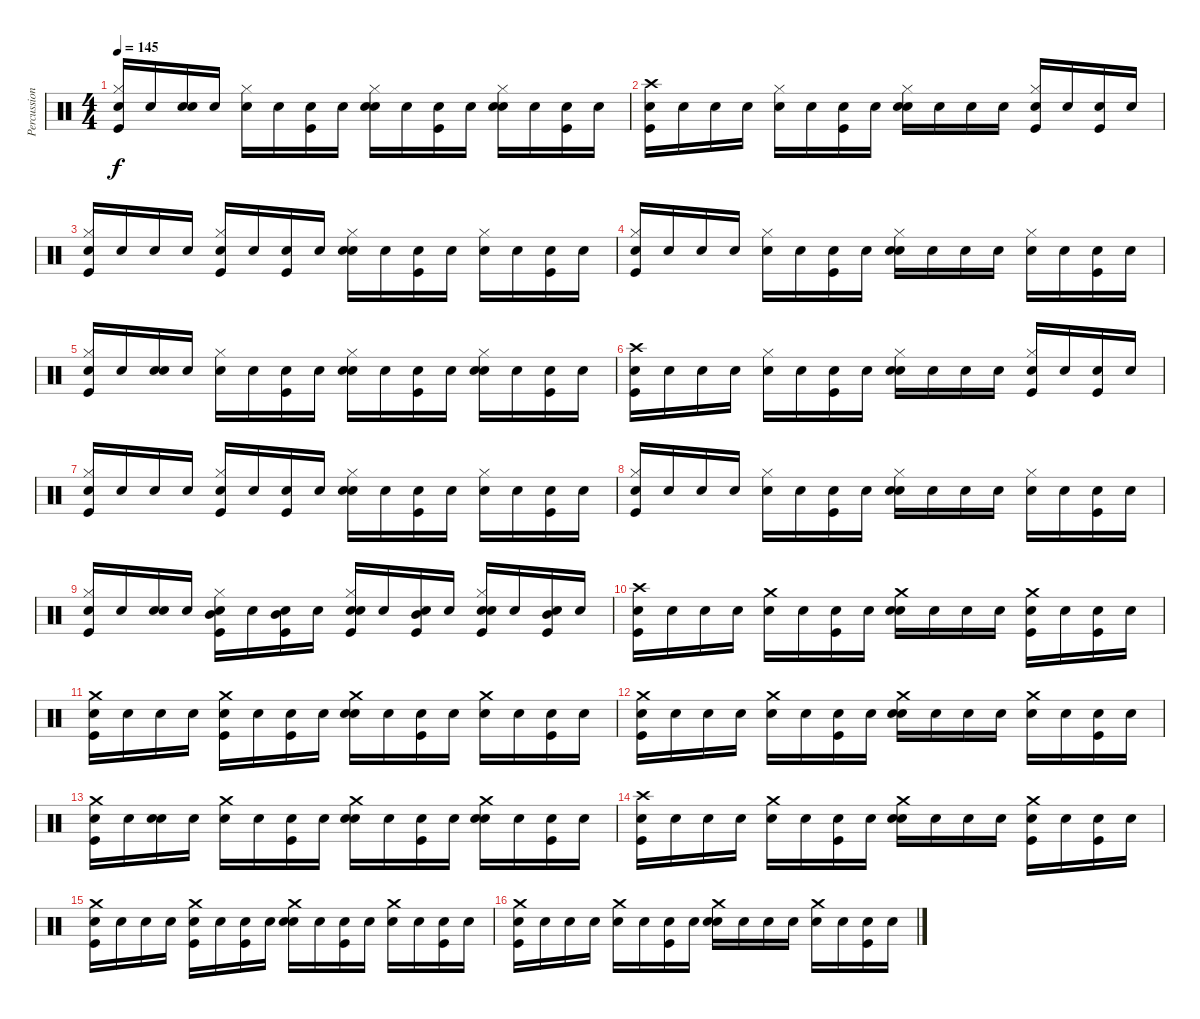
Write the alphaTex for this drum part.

\track ("Percussion" "Percussion") {instrument percussion}
\staff {score}
\articulation defaults
\ts (4 4)
\tempo 145
\clef neutral
\ks c
("Snare (hit)" "Hi-Hat (closed)" "Kick (hit)").16{dy f} "Snare (hit)".16 ("Snare (hit)" "Snare (hit) 2").16 "Snare (hit)".16 ("Snare (hit)" "Hi-Hat (closed)").16 "Snare (hit)".16 ("Snare (hit)" "Kick (hit)").16 "Snare (hit)".16 ("Snare (hit)" "Snare (hit) 2" "Hi-Hat (closed)").16 "Snare (hit)".16 ("Snare (hit)" "Kick (hit)").16 "Snare (hit)".16 ("Snare (hit)" "Snare (hit) 2" "Hi-Hat (closed)").16 "Snare (hit)".16 ("Snare (hit)" "Kick (hit)").16 "Snare (hit)".16 |
("Snare (hit)" "Crash high (hit)" "Kick (hit)").16 "Snare (hit)".16 "Snare (hit)".16 "Snare (hit)".16 ("Snare (hit)" "Hi-Hat (closed)").16 "Snare (hit)".16 ("Snare (hit)" "Kick (hit)").16 "Snare (hit)".16 ("Snare (hit)" "Hi-Hat (closed)" "Snare (hit) 2").16 "Snare (hit)".16 "Snare (hit)".16 "Snare (hit)".16 ("Snare (hit)" "Hi-Hat (closed)" "Kick (hit)").16 "Snare (hit)".16 ("Snare (hit)" "Kick (hit)").16 "Snare (hit)".16 |
("Snare (hit)" "Hi-Hat (closed)" "Kick (hit)").16 "Snare (hit)".16 "Snare (hit)".16 "Snare (hit)".16 ("Snare (hit)" "Hi-Hat (closed)" "Kick (hit)").16 "Snare (hit)".16 ("Snare (hit)" "Kick (hit)").16 "Snare (hit)".16 ("Snare (hit)" "Hi-Hat (closed)" "Snare (hit) 2").16 "Snare (hit)".16 ("Snare (hit)" "Kick (hit)").16 "Snare (hit)".16 ("Snare (hit)" "Hi-Hat (closed)").16 "Snare (hit)".16 ("Snare (hit)" "Kick (hit)").16 "Snare (hit)".16 |
("Snare (hit)" "Hi-Hat (closed)" "Kick (hit)").16 "Snare (hit)".16 "Snare (hit)".16 "Snare (hit)".16 ("Snare (hit)" "Hi-Hat (closed)").16 "Snare (hit)".16 ("Snare (hit)" "Kick (hit)").16 "Snare (hit)".16 ("Snare (hit)" "Hi-Hat (closed)" "Snare (hit) 2").16 "Snare (hit)".16 "Snare (hit)".16 "Snare (hit)".16 ("Snare (hit)" "Hi-Hat (closed)").16 "Snare (hit)".16 ("Snare (hit)" "Kick (hit)").16 "Snare (hit)".16 |
("Snare (hit)" "Hi-Hat (closed)" "Kick (hit)").16 "Snare (hit)".16 ("Snare (hit)" "Snare (hit) 2").16 "Snare (hit)".16 ("Snare (hit)" "Hi-Hat (closed)").16 "Snare (hit)".16 ("Snare (hit)" "Kick (hit)").16 "Snare (hit)".16 ("Snare (hit)" "Snare (hit) 2" "Hi-Hat (closed)").16 "Snare (hit)".16 ("Snare (hit)" "Kick (hit)").16 "Snare (hit)".16 ("Snare (hit)" "Snare (hit) 2" "Hi-Hat (closed)").16 "Snare (hit)".16 ("Snare (hit)" "Kick (hit)").16 "Snare (hit)".16 |
("Snare (hit)" "Crash high (hit)" "Kick (hit)").16 "Snare (hit)".16 "Snare (hit)".16 "Snare (hit)".16 ("Snare (hit)" "Hi-Hat (closed)").16 "Snare (hit)".16 ("Snare (hit)" "Kick (hit)").16 "Snare (hit)".16 ("Snare (hit)" "Hi-Hat (closed)" "Snare (hit) 2").16 "Snare (hit)".16 "Snare (hit)".16 "Snare (hit)".16 ("Snare (hit)" "Hi-Hat (closed)" "Kick (hit)").16 "Snare (hit)".16 ("Snare (hit)" "Kick (hit)").16 "Snare (hit)".16 |
("Snare (hit)" "Hi-Hat (closed)" "Kick (hit)").16 "Snare (hit)".16 "Snare (hit)".16 "Snare (hit)".16 ("Snare (hit)" "Hi-Hat (closed)" "Kick (hit)").16 "Snare (hit)".16 ("Snare (hit)" "Kick (hit)").16 "Snare (hit)".16 ("Snare (hit)" "Hi-Hat (closed)" "Snare (hit) 2").16 "Snare (hit)".16 ("Snare (hit)" "Kick (hit)").16 "Snare (hit)".16 ("Snare (hit)" "Hi-Hat (closed)").16 "Snare (hit)".16 ("Snare (hit)" "Kick (hit)").16 "Snare (hit)".16 |
("Snare (hit)" "Hi-Hat (closed)" "Kick (hit)").16 "Snare (hit)".16 "Snare (hit)".16 "Snare (hit)".16 ("Snare (hit)" "Hi-Hat (closed)").16 "Snare (hit)".16 ("Snare (hit)" "Kick (hit)").16 "Snare (hit)".16 ("Snare (hit)" "Hi-Hat (closed)" "Snare (hit) 2").16 "Snare (hit)".16 "Snare (hit)".16 "Snare (hit)".16 ("Snare (hit)" "Hi-Hat (closed)").16 "Snare (hit)".16 ("Snare (hit)" "Kick (hit)").16 "Snare (hit)".16 |
("Snare (hit)" "Hi-Hat (closed)" "Kick (hit)").16 "Snare (hit)".16 ("Snare (hit)" "Snare (hit) 2").16 "Snare (hit)".16 ("Snare (hit)" "Mid Tom (hit)" "Hi-Hat (closed)" "Kick (hit)").16 "Snare (hit)".16 ("Snare (hit)" "Mid Tom (hit)" "Kick (hit)").16 "Snare (hit)".16 ("Snare (hit)" "Snare (hit) 2" "Hi-Hat (closed)" "Kick (hit)").16 "Snare (hit)".16 ("Snare (hit)" "Mid Tom (hit)" "Kick (hit)").16 "Snare (hit)".16 ("Snare (hit)" "Snare (hit) 2" "Hi-Hat (closed)" "Kick (hit)").16 "Snare (hit)".16 ("Snare (hit)" "Mid Tom (hit)" "Kick (hit)").16 "Snare (hit)".16 |
("Snare (hit)" "Crash high (hit)" "Kick (hit)").16 "Snare (hit)".16 "Snare (hit)".16 "Snare (hit)".16 ("Snare (hit)" "Crash medium (hit)").16 "Snare (hit)".16 ("Snare (hit)" "Kick (hit)").16 "Snare (hit)".16 ("Snare (hit)" "Crash medium (hit)" "Snare (hit) 2").16 "Snare (hit)".16 "Snare (hit)".16 "Snare (hit)".16 ("Snare (hit)" "Crash medium (hit)" "Kick (hit)").16 "Snare (hit)".16 ("Snare (hit)" "Kick (hit)").16 "Snare (hit)".16 |
("Snare (hit)" "Crash medium (hit)" "Kick (hit)").16 "Snare (hit)".16 "Snare (hit)".16 "Snare (hit)".16 ("Snare (hit)" "Crash medium (hit)" "Kick (hit)").16 "Snare (hit)".16 ("Snare (hit)" "Kick (hit)").16 "Snare (hit)".16 ("Snare (hit)" "Crash medium (hit)" "Snare (hit) 2").16 "Snare (hit)".16 ("Snare (hit)" "Kick (hit)").16 "Snare (hit)".16 ("Snare (hit)" "Crash medium (hit)").16 "Snare (hit)".16 ("Snare (hit)" "Kick (hit)").16 "Snare (hit)".16 |
("Snare (hit)" "Crash medium (hit)" "Kick (hit)").16 "Snare (hit)".16 "Snare (hit)".16 "Snare (hit)".16 ("Snare (hit)" "Crash medium (hit)").16 "Snare (hit)".16 ("Snare (hit)" "Kick (hit)").16 "Snare (hit)".16 ("Snare (hit)" "Crash medium (hit)" "Snare (hit) 2").16 "Snare (hit)".16 "Snare (hit)".16 "Snare (hit)".16 ("Snare (hit)" "Crash medium (hit)").16 "Snare (hit)".16 ("Snare (hit)" "Kick (hit)").16 "Snare (hit)".16 |
("Snare (hit)" "Crash medium (hit)" "Kick (hit)").16 "Snare (hit)".16 ("Snare (hit)" "Snare (hit) 2").16 "Snare (hit)".16 ("Snare (hit)" "Crash medium (hit)").16 "Snare (hit)".16 ("Snare (hit)" "Kick (hit)").16 "Snare (hit)".16 ("Snare (hit)" "Snare (hit) 2" "Crash medium (hit)").16 "Snare (hit)".16 ("Snare (hit)" "Kick (hit)").16 "Snare (hit)".16 ("Snare (hit)" "Snare (hit) 2" "Crash medium (hit)").16 "Snare (hit)".16 ("Snare (hit)" "Kick (hit)").16 "Snare (hit)".16 |
("Snare (hit)" "Crash high (hit)" "Kick (hit)").16 "Snare (hit)".16 "Snare (hit)".16 "Snare (hit)".16 ("Snare (hit)" "Crash medium (hit)").16 "Snare (hit)".16 ("Snare (hit)" "Kick (hit)").16 "Snare (hit)".16 ("Snare (hit)" "Crash medium (hit)" "Snare (hit) 2").16 "Snare (hit)".16 "Snare (hit)".16 "Snare (hit)".16 ("Snare (hit)" "Crash medium (hit)" "Kick (hit)").16 "Snare (hit)".16 ("Snare (hit)" "Kick (hit)").16 "Snare (hit)".16 |
("Snare (hit)" "Crash medium (hit)" "Kick (hit)").16 "Snare (hit)".16 "Snare (hit)".16 "Snare (hit)".16 ("Snare (hit)" "Crash medium (hit)" "Kick (hit)").16 "Snare (hit)".16 ("Snare (hit)" "Kick (hit)").16 "Snare (hit)".16 ("Snare (hit)" "Crash medium (hit)" "Snare (hit) 2").16 "Snare (hit)".16 ("Snare (hit)" "Kick (hit)").16 "Snare (hit)".16 ("Snare (hit)" "Crash medium (hit)").16 "Snare (hit)".16 ("Snare (hit)" "Kick (hit)").16 "Snare (hit)".16 |
("Snare (hit)" "Crash medium (hit)" "Kick (hit)").16 "Snare (hit)".16 "Snare (hit)".16 "Snare (hit)".16 ("Snare (hit)" "Crash medium (hit)").16 "Snare (hit)".16 ("Snare (hit)" "Kick (hit)").16 "Snare (hit)".16 ("Snare (hit)" "Crash medium (hit)" "Snare (hit) 2").16 "Snare (hit)".16 "Snare (hit)".16 "Snare (hit)".16 ("Snare (hit)" "Crash medium (hit)").16 "Snare (hit)".16 ("Snare (hit)" "Kick (hit)").16 "Snare (hit)".16
